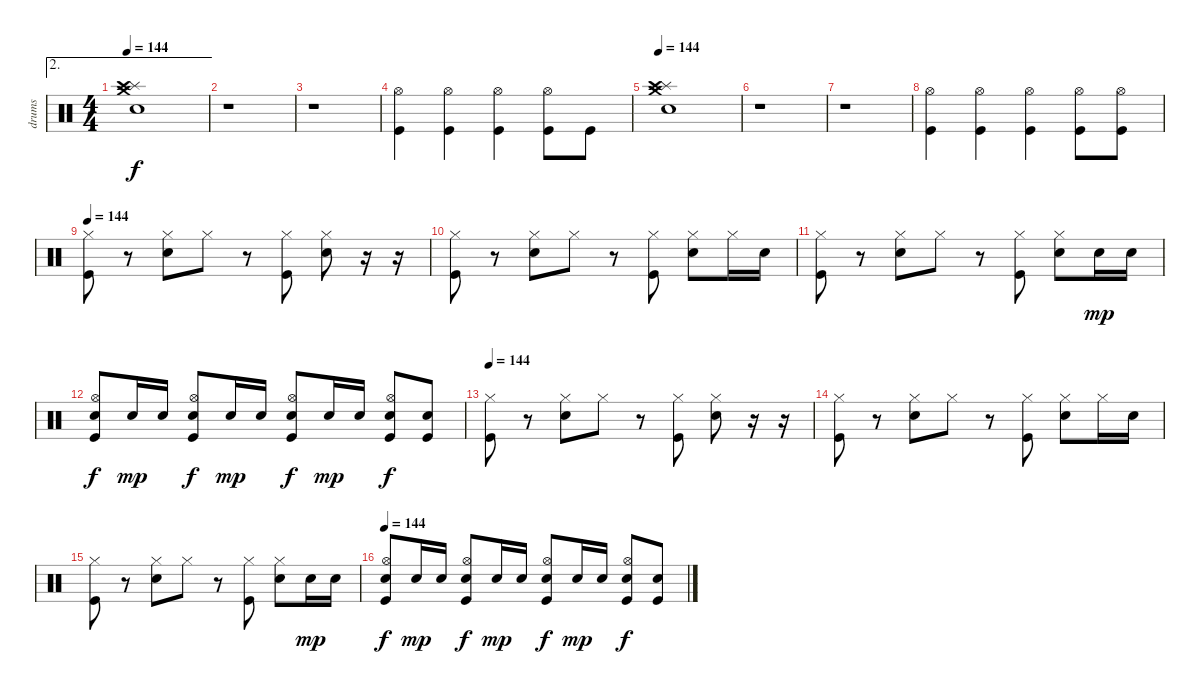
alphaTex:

\track ("drums" "drums") {instrument percussion}
\staff {score}
\articulation defaults
\ae 2
\ts (4 4)
\tempo 144
\clef neutral
\ks c
("Splash (hit)" "Crash high (hit)" "Crash medium (hit)" "Electric Snare (hit)").1{dy f} |
r.1 |
r.1 |
("Hi-Hat (open)" "Kick (hit)").4 ("Hi-Hat (open)" "Kick (hit)").4 ("Hi-Hat (open)" "Kick (hit)").4 ("Hi-Hat (open)" "Kick (hit)").8 "Kick (hit)".8 |
\tempo 144
("Splash (hit)" "Crash high (hit)" "Crash medium (hit)" "Electric Snare (hit)").1 |
r.1 |
r.1 |
("Hi-Hat (open)" "Kick (hit)").4 ("Hi-Hat (open)" "Kick (hit)").4 ("Hi-Hat (open)" "Kick (hit)").4 ("Hi-Hat (open)" "Kick (hit)").8 ("Hi-Hat (open)" "Kick (hit)").8 |
\tempo 144
("Hi-Hat (closed)" "Kick (hit)").8 r.8 ("Hi-Hat (closed)" "Electric Snare (hit)").8 "Hi-Hat (closed)".8 r.8 ("Hi-Hat (closed)" "Kick (hit)").8 ("Hi-Hat (closed)" "Electric Snare (hit)").8 r.16 r.16 |
("Hi-Hat (closed)" "Kick (hit)").8 r.8 ("Hi-Hat (closed)" "Electric Snare (hit)").8 "Hi-Hat (closed)".8 r.8 ("Hi-Hat (closed)" "Kick (hit)").8 ("Hi-Hat (closed)" "Electric Snare (hit)").8 "Hi-Hat (closed)".16 "Electric Snare (hit)".16 |
("Hi-Hat (closed)" "Kick (hit)").8 r.8 ("Hi-Hat (closed)" "Electric Snare (hit)").8 "Hi-Hat (closed)".8 r.8 ("Hi-Hat (closed)" "Kick (hit)").8 ("Hi-Hat (closed)" "Electric Snare (hit)").8 "Electric Snare (hit)".16{dy mp} "Electric Snare (hit)".16 |
("Hi-Hat (open)" "Electric Snare (hit)" "Kick (hit)").8{dy f} "Electric Snare (hit)".16{dy mp} "Electric Snare (hit)".16 ("Hi-Hat (open)" "Electric Snare (hit)" "Kick (hit)").8{dy f} "Electric Snare (hit)".16{dy mp} "Electric Snare (hit)".16 ("Hi-Hat (open)" "Electric Snare (hit)" "Kick (hit)").8{dy f} "Electric Snare (hit)".16{dy mp} "Electric Snare (hit)".16 ("Hi-Hat (open)" "Electric Snare (hit)" "Kick (hit)").8{dy f} ("Electric Snare (hit)" "Kick (hit)").8 |
\tempo 144
("Hi-Hat (closed)" "Kick (hit)").8 r.8 ("Hi-Hat (closed)" "Electric Snare (hit)").8 "Hi-Hat (closed)".8 r.8 ("Hi-Hat (closed)" "Kick (hit)").8 ("Hi-Hat (closed)" "Electric Snare (hit)").8 r.16 r.16 |
("Hi-Hat (closed)" "Kick (hit)").8 r.8 ("Hi-Hat (closed)" "Electric Snare (hit)").8 "Hi-Hat (closed)".8 r.8 ("Hi-Hat (closed)" "Kick (hit)").8 ("Hi-Hat (closed)" "Electric Snare (hit)").8 "Hi-Hat (closed)".16 "Electric Snare (hit)".16 |
("Hi-Hat (closed)" "Kick (hit)").8 r.8 ("Hi-Hat (closed)" "Electric Snare (hit)").8 "Hi-Hat (closed)".8 r.8 ("Hi-Hat (closed)" "Kick (hit)").8 ("Hi-Hat (closed)" "Electric Snare (hit)").8 "Electric Snare (hit)".16{dy mp} "Electric Snare (hit)".16 |
\tempo 144
("Hi-Hat (open)" "Electric Snare (hit)" "Kick (hit)").8{dy f} "Electric Snare (hit)".16{dy mp} "Electric Snare (hit)".16 ("Hi-Hat (open)" "Electric Snare (hit)" "Kick (hit)").8{dy f} "Electric Snare (hit)".16{dy mp} "Electric Snare (hit)".16 ("Hi-Hat (open)" "Electric Snare (hit)" "Kick (hit)").8{dy f} "Electric Snare (hit)".16{dy mp} "Electric Snare (hit)".16 ("Hi-Hat (open)" "Electric Snare (hit)" "Kick (hit)").8{dy f} ("Electric Snare (hit)" "Kick (hit)").8
